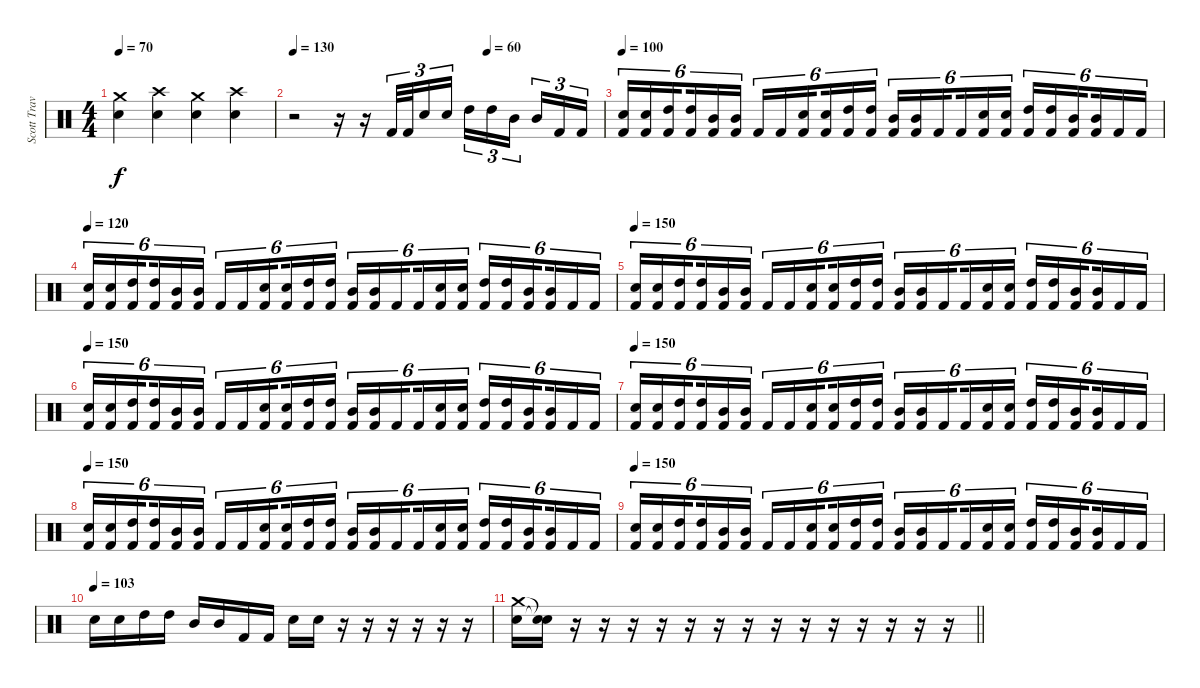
\track ("Scott Travis" "Scott Trav") {instrument percussion}
\staff {score}
\articulation defaults
\ts (4 4)
\tempo 70
\clef neutral
\ks c
("Crash medium (hit)" "Snare (hit) 2").4{dy f} ("Crash high (hit)" "Snare (hit) 2").4 ("Crash medium (hit)" "Snare (hit) 2").4 ("Crash high (hit)" "Snare (hit) 2").4 |
\tempo 130
\tempo (60 0.625)
r.2 r.16 r.16 "Kick (hit) 2".32{tu (3 2)} "Kick (hit) 2".32{tu (3 2)} "Snare (hit) 2".16{tu (3 2)} "Snare (hit) 2".16{tu (3 2)} "High Tom (hit)".16{tu (3 2)} "High Tom (hit)".16{tu (3 2)} "Mid Tom (hit)".16{tu (3 2) beam splitsecondary} "Mid Tom (hit)".16{tu (3 2)} "Kick (hit) 2".16{tu (3 2)} "Kick (hit) 2".16{tu (3 2)} |
\tempo 100
("Snare (hit) 2" "Kick (hit) 2").16{tu (6 4)} ("Snare (hit) 2" "Kick (hit) 2").16{tu (6 4)} ("High Tom (hit)" "Kick (hit) 2").16{tu (6 4) beam splitsecondary} ("High Tom (hit)" "Kick (hit) 2").16{tu (6 4)} ("Mid Tom (hit)" "Kick (hit) 2").16{tu (6 4)} ("Mid Tom (hit)" "Kick (hit) 2").16{tu (6 4)} "Kick (hit) 2".16{tu (6 4)} "Kick (hit) 2".16{tu (6 4)} ("Snare (hit) 2" "Kick (hit) 2").16{tu (6 4) beam splitsecondary} ("Snare (hit) 2" "Kick (hit) 2").16{tu (6 4)} ("High Tom (hit)" "Kick (hit) 2").16{tu (6 4)} ("High Tom (hit)" "Kick (hit) 2").16{tu (6 4)} ("Mid Tom (hit)" "Kick (hit) 2").16{tu (6 4)} ("Mid Tom (hit)" "Kick (hit) 2").16{tu (6 4)} "Kick (hit) 2".16{tu (6 4) beam splitsecondary} "Kick (hit) 2".16{tu (6 4)} ("Snare (hit) 2" "Kick (hit) 2").16{tu (6 4)} ("Snare (hit) 2" "Kick (hit) 2").16{tu (6 4)} ("High Tom (hit)" "Kick (hit) 2").16{tu (6 4)} ("High Tom (hit)" "Kick (hit) 2").16{tu (6 4)} ("Mid Tom (hit)" "Kick (hit) 2").16{tu (6 4) beam splitsecondary} ("Mid Tom (hit)" "Kick (hit) 2").16{tu (6 4)} "Kick (hit) 2".16{tu (6 4)} "Kick (hit) 2".16{tu (6 4)} |
\tempo 120
("Snare (hit) 2" "Kick (hit) 2").16{tu (6 4)} ("Snare (hit) 2" "Kick (hit) 2").16{tu (6 4)} ("High Tom (hit)" "Kick (hit) 2").16{tu (6 4) beam splitsecondary} ("High Tom (hit)" "Kick (hit) 2").16{tu (6 4)} ("Mid Tom (hit)" "Kick (hit) 2").16{tu (6 4)} ("Mid Tom (hit)" "Kick (hit) 2").16{tu (6 4)} "Kick (hit) 2".16{tu (6 4)} "Kick (hit) 2".16{tu (6 4)} ("Snare (hit) 2" "Kick (hit) 2").16{tu (6 4) beam splitsecondary} ("Snare (hit) 2" "Kick (hit) 2").16{tu (6 4)} ("High Tom (hit)" "Kick (hit) 2").16{tu (6 4)} ("High Tom (hit)" "Kick (hit) 2").16{tu (6 4)} ("Mid Tom (hit)" "Kick (hit) 2").16{tu (6 4)} ("Mid Tom (hit)" "Kick (hit) 2").16{tu (6 4)} "Kick (hit) 2".16{tu (6 4) beam splitsecondary} "Kick (hit) 2".16{tu (6 4)} ("Snare (hit) 2" "Kick (hit) 2").16{tu (6 4)} ("Snare (hit) 2" "Kick (hit) 2").16{tu (6 4)} ("High Tom (hit)" "Kick (hit) 2").16{tu (6 4)} ("High Tom (hit)" "Kick (hit) 2").16{tu (6 4)} ("Mid Tom (hit)" "Kick (hit) 2").16{tu (6 4) beam splitsecondary} ("Mid Tom (hit)" "Kick (hit) 2").16{tu (6 4)} "Kick (hit) 2".16{tu (6 4)} "Kick (hit) 2".16{tu (6 4)} |
\tempo 150
("Snare (hit) 2" "Kick (hit) 2").16{tu (6 4)} ("Snare (hit) 2" "Kick (hit) 2").16{tu (6 4)} ("High Tom (hit)" "Kick (hit) 2").16{tu (6 4) beam splitsecondary} ("High Tom (hit)" "Kick (hit) 2").16{tu (6 4)} ("Mid Tom (hit)" "Kick (hit) 2").16{tu (6 4)} ("Mid Tom (hit)" "Kick (hit) 2").16{tu (6 4)} "Kick (hit) 2".16{tu (6 4)} "Kick (hit) 2".16{tu (6 4)} ("Snare (hit) 2" "Kick (hit) 2").16{tu (6 4) beam splitsecondary} ("Snare (hit) 2" "Kick (hit) 2").16{tu (6 4)} ("High Tom (hit)" "Kick (hit) 2").16{tu (6 4)} ("High Tom (hit)" "Kick (hit) 2").16{tu (6 4)} ("Mid Tom (hit)" "Kick (hit) 2").16{tu (6 4)} ("Mid Tom (hit)" "Kick (hit) 2").16{tu (6 4)} "Kick (hit) 2".16{tu (6 4) beam splitsecondary} "Kick (hit) 2".16{tu (6 4)} ("Snare (hit) 2" "Kick (hit) 2").16{tu (6 4)} ("Snare (hit) 2" "Kick (hit) 2").16{tu (6 4)} ("High Tom (hit)" "Kick (hit) 2").16{tu (6 4)} ("High Tom (hit)" "Kick (hit) 2").16{tu (6 4)} ("Mid Tom (hit)" "Kick (hit) 2").16{tu (6 4) beam splitsecondary} ("Mid Tom (hit)" "Kick (hit) 2").16{tu (6 4)} "Kick (hit) 2".16{tu (6 4)} "Kick (hit) 2".16{tu (6 4)} |
\tempo 150
("Snare (hit) 2" "Kick (hit) 2").16{tu (6 4)} ("Snare (hit) 2" "Kick (hit) 2").16{tu (6 4)} ("High Tom (hit)" "Kick (hit) 2").16{tu (6 4) beam splitsecondary} ("High Tom (hit)" "Kick (hit) 2").16{tu (6 4)} ("Mid Tom (hit)" "Kick (hit) 2").16{tu (6 4)} ("Mid Tom (hit)" "Kick (hit) 2").16{tu (6 4)} "Kick (hit) 2".16{tu (6 4)} "Kick (hit) 2".16{tu (6 4)} ("Snare (hit) 2" "Kick (hit) 2").16{tu (6 4) beam splitsecondary} ("Snare (hit) 2" "Kick (hit) 2").16{tu (6 4)} ("High Tom (hit)" "Kick (hit) 2").16{tu (6 4)} ("High Tom (hit)" "Kick (hit) 2").16{tu (6 4)} ("Mid Tom (hit)" "Kick (hit) 2").16{tu (6 4)} ("Mid Tom (hit)" "Kick (hit) 2").16{tu (6 4)} "Kick (hit) 2".16{tu (6 4) beam splitsecondary} "Kick (hit) 2".16{tu (6 4)} ("Snare (hit) 2" "Kick (hit) 2").16{tu (6 4)} ("Snare (hit) 2" "Kick (hit) 2").16{tu (6 4)} ("High Tom (hit)" "Kick (hit) 2").16{tu (6 4)} ("High Tom (hit)" "Kick (hit) 2").16{tu (6 4)} ("Mid Tom (hit)" "Kick (hit) 2").16{tu (6 4) beam splitsecondary} ("Mid Tom (hit)" "Kick (hit) 2").16{tu (6 4)} "Kick (hit) 2".16{tu (6 4)} "Kick (hit) 2".16{tu (6 4)} |
\tempo 150
("Snare (hit) 2" "Kick (hit) 2").16{tu (6 4)} ("Snare (hit) 2" "Kick (hit) 2").16{tu (6 4)} ("High Tom (hit)" "Kick (hit) 2").16{tu (6 4) beam splitsecondary} ("High Tom (hit)" "Kick (hit) 2").16{tu (6 4)} ("Mid Tom (hit)" "Kick (hit) 2").16{tu (6 4)} ("Mid Tom (hit)" "Kick (hit) 2").16{tu (6 4)} "Kick (hit) 2".16{tu (6 4)} "Kick (hit) 2".16{tu (6 4)} ("Snare (hit) 2" "Kick (hit) 2").16{tu (6 4) beam splitsecondary} ("Snare (hit) 2" "Kick (hit) 2").16{tu (6 4)} ("High Tom (hit)" "Kick (hit) 2").16{tu (6 4)} ("High Tom (hit)" "Kick (hit) 2").16{tu (6 4)} ("Mid Tom (hit)" "Kick (hit) 2").16{tu (6 4)} ("Mid Tom (hit)" "Kick (hit) 2").16{tu (6 4)} "Kick (hit) 2".16{tu (6 4) beam splitsecondary} "Kick (hit) 2".16{tu (6 4)} ("Snare (hit) 2" "Kick (hit) 2").16{tu (6 4)} ("Snare (hit) 2" "Kick (hit) 2").16{tu (6 4)} ("High Tom (hit)" "Kick (hit) 2").16{tu (6 4)} ("High Tom (hit)" "Kick (hit) 2").16{tu (6 4)} ("Mid Tom (hit)" "Kick (hit) 2").16{tu (6 4) beam splitsecondary} ("Mid Tom (hit)" "Kick (hit) 2").16{tu (6 4)} "Kick (hit) 2".16{tu (6 4)} "Kick (hit) 2".16{tu (6 4)} |
\tempo 150
("Snare (hit) 2" "Kick (hit) 2").16{tu (6 4)} ("Snare (hit) 2" "Kick (hit) 2").16{tu (6 4)} ("High Tom (hit)" "Kick (hit) 2").16{tu (6 4) beam splitsecondary} ("High Tom (hit)" "Kick (hit) 2").16{tu (6 4)} ("Mid Tom (hit)" "Kick (hit) 2").16{tu (6 4)} ("Mid Tom (hit)" "Kick (hit) 2").16{tu (6 4)} "Kick (hit) 2".16{tu (6 4)} "Kick (hit) 2".16{tu (6 4)} ("Snare (hit) 2" "Kick (hit) 2").16{tu (6 4) beam splitsecondary} ("Snare (hit) 2" "Kick (hit) 2").16{tu (6 4)} ("High Tom (hit)" "Kick (hit) 2").16{tu (6 4)} ("High Tom (hit)" "Kick (hit) 2").16{tu (6 4)} ("Mid Tom (hit)" "Kick (hit) 2").16{tu (6 4)} ("Mid Tom (hit)" "Kick (hit) 2").16{tu (6 4)} "Kick (hit) 2".16{tu (6 4) beam splitsecondary} "Kick (hit) 2".16{tu (6 4)} ("Snare (hit) 2" "Kick (hit) 2").16{tu (6 4)} ("Snare (hit) 2" "Kick (hit) 2").16{tu (6 4)} ("High Tom (hit)" "Kick (hit) 2").16{tu (6 4)} ("High Tom (hit)" "Kick (hit) 2").16{tu (6 4)} ("Mid Tom (hit)" "Kick (hit) 2").16{tu (6 4) beam splitsecondary} ("Mid Tom (hit)" "Kick (hit) 2").16{tu (6 4)} "Kick (hit) 2".16{tu (6 4)} "Kick (hit) 2".16{tu (6 4)} |
\tempo 150
("Snare (hit) 2" "Kick (hit) 2").16{tu (6 4)} ("Snare (hit) 2" "Kick (hit) 2").16{tu (6 4)} ("High Tom (hit)" "Kick (hit) 2").16{tu (6 4) beam splitsecondary} ("High Tom (hit)" "Kick (hit) 2").16{tu (6 4)} ("Mid Tom (hit)" "Kick (hit) 2").16{tu (6 4)} ("Mid Tom (hit)" "Kick (hit) 2").16{tu (6 4)} "Kick (hit) 2".16{tu (6 4)} "Kick (hit) 2".16{tu (6 4)} ("Snare (hit) 2" "Kick (hit) 2").16{tu (6 4) beam splitsecondary} ("Snare (hit) 2" "Kick (hit) 2").16{tu (6 4)} ("High Tom (hit)" "Kick (hit) 2").16{tu (6 4)} ("High Tom (hit)" "Kick (hit) 2").16{tu (6 4)} ("Mid Tom (hit)" "Kick (hit) 2").16{tu (6 4)} ("Mid Tom (hit)" "Kick (hit) 2").16{tu (6 4)} "Kick (hit) 2".16{tu (6 4) beam splitsecondary} "Kick (hit) 2".16{tu (6 4)} ("Snare (hit) 2" "Kick (hit) 2").16{tu (6 4)} ("Snare (hit) 2" "Kick (hit) 2").16{tu (6 4)} ("High Tom (hit)" "Kick (hit) 2").16{tu (6 4)} ("High Tom (hit)" "Kick (hit) 2").16{tu (6 4)} ("Mid Tom (hit)" "Kick (hit) 2").16{tu (6 4) beam splitsecondary} ("Mid Tom (hit)" "Kick (hit) 2").16{tu (6 4)} "Kick (hit) 2".16{tu (6 4)} "Kick (hit) 2".16{tu (6 4)} |
\tempo (103)
"Snare (hit) 2".16 "Snare (hit) 2".16 "High Tom (hit)".16 "High Tom (hit)".16 "Mid Tom (hit)".16 "Mid Tom (hit)".16 "Kick (hit) 2".16 "Kick (hit) 2".16 "Snare (hit) 2".16 "Snare (hit) 2".16 r.16 r.16 r.16 r.16 r.16 r.16 |
\barLineRight lightlight
("Crash medium (hit)" "Snare (hit) 2").16 ("Snare (hit)"{t} "Snare (hit)"{t}).16 r.16 r.16 r.16 r.16 r.16 r.16 r.16 r.16 r.16 r.16 r.16 r.16 r.16 r.16
